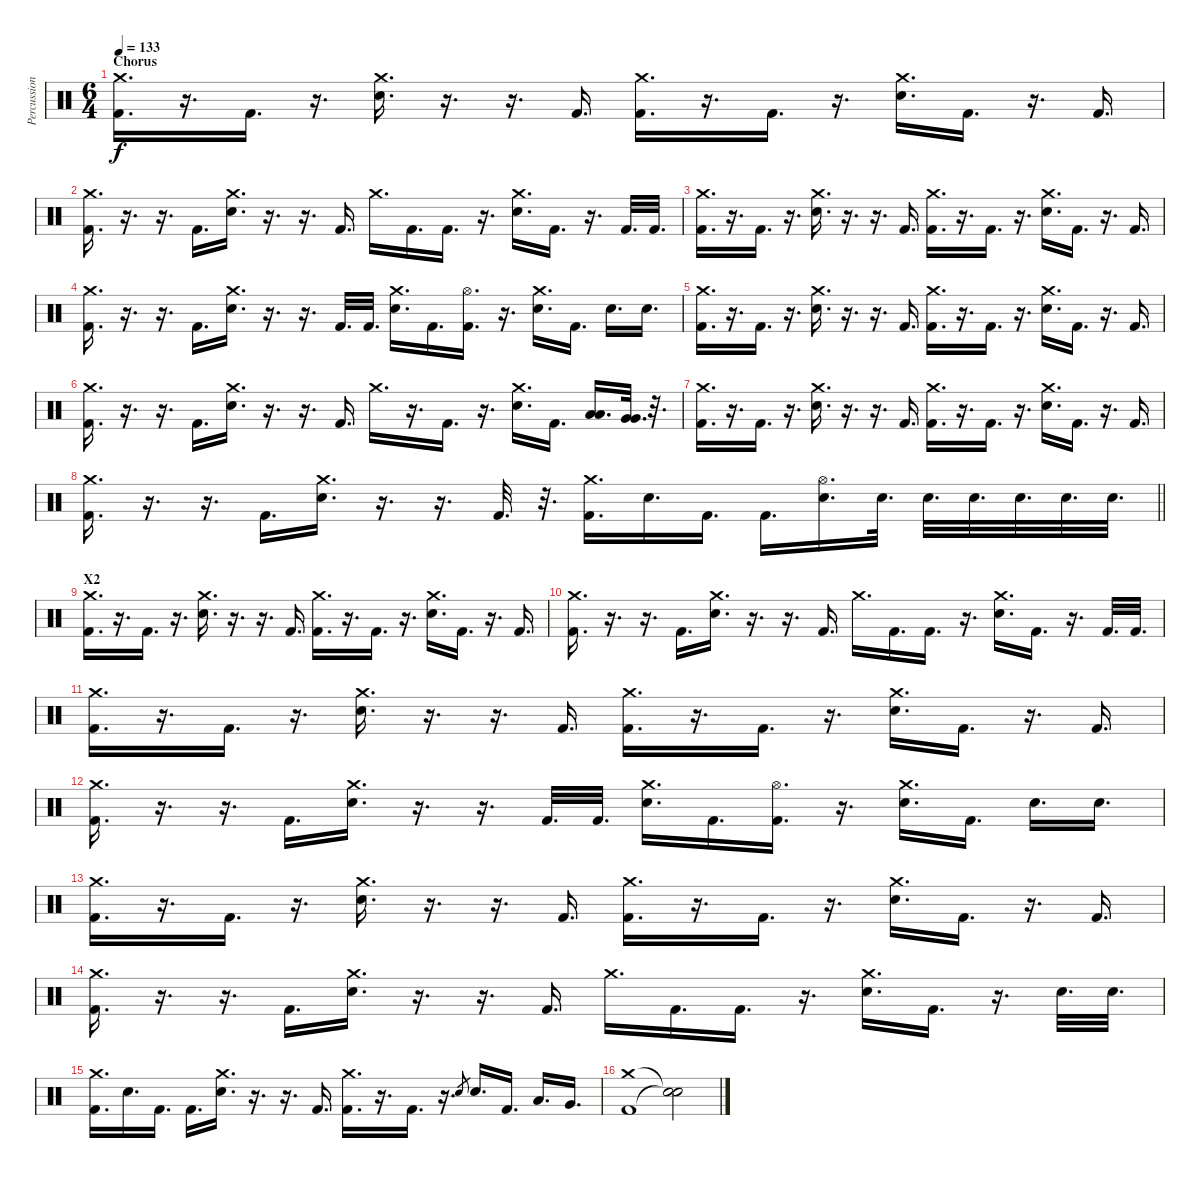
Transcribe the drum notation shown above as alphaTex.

\track ("Percussion" "Percussion") {instrument percussion}
\staff {score}
\articulation defaults
\ts (6 4)
\section ("" "Chorus")
\tempo 133
\clef neutral
\ks c
("Crash medium (hit)" "Kick (hit) 2").16{d dy f} r.16{d} "Kick (hit) 2".16{d} r.16{d} ("Crash medium (hit)" "Electric Snare (hit)").16{d} r.16{d} r.16{d} "Kick (hit) 2".16{d} ("Crash medium (hit)" "Kick (hit) 2").16{d} r.16{d} "Kick (hit) 2".16{d} r.16{d} ("Crash medium (hit)" "Electric Snare (hit)").16{d} "Kick (hit) 2".16{d} r.16{d} "Kick (hit) 2".16{d} |
("Crash medium (hit)" "Kick (hit) 2").16{d} r.16{d} r.16{d} "Kick (hit) 2".16{d} ("Crash medium (hit)" "Electric Snare (hit)").16{d} r.16{d} r.16{d} "Kick (hit) 2".16{d} "Crash medium (hit)".16{d} "Kick (hit) 2".16{d} "Kick (hit) 2".16{d} r.16{d} ("Crash medium (hit)" "Electric Snare (hit)").16{d} "Kick (hit) 2".16{d} r.16{d} "Kick (hit) 2".32{d} "Kick (hit) 2".32{d} |
("Crash medium (hit)" "Kick (hit) 2").16{d} r.16{d} "Kick (hit) 2".16{d} r.16{d} ("Crash medium (hit)" "Electric Snare (hit)").16{d} r.16{d} r.16{d} "Kick (hit) 2".16{d} ("Crash medium (hit)" "Kick (hit) 2").16{d} r.16{d} "Kick (hit) 2".16{d} r.16{d} ("Crash medium (hit)" "Electric Snare (hit)").16{d} "Kick (hit) 2".16{d} r.16{d} "Kick (hit) 2".16{d} |
("Crash medium (hit)" "Kick (hit) 2").16{d} r.16{d} r.16{d} "Kick (hit) 2".16{d} ("Crash medium (hit)" "Electric Snare (hit)").16{d} r.16{d} r.16{d} "Kick (hit) 2".32{d} "Kick (hit) 2".32{d} ("Crash medium (hit)" "Electric Snare (hit)").16{d} "Kick (hit) 2".16{d} ("Hi-Hat (open)" "Kick (hit) 2").16{d} r.16{d} ("Crash medium (hit)" "Electric Snare (hit)").16{d} "Kick (hit) 2".16{d} "Electric Snare (hit)".16{d} "Electric Snare (hit)".16{d} |
("Crash medium (hit)" "Kick (hit) 2").16{d} r.16{d} "Kick (hit) 2".16{d} r.16{d} ("Crash medium (hit)" "Electric Snare (hit)").16{d} r.16{d} r.16{d} "Kick (hit) 2".16{d} ("Crash medium (hit)" "Kick (hit) 2").16{d} r.16{d} "Kick (hit) 2".16{d} r.16{d} ("Crash medium (hit)" "Electric Snare (hit)").16{d} "Kick (hit) 2".16{d} r.16{d} "Kick (hit) 2".16{d} |
("Crash medium (hit)" "Kick (hit) 2").16{d} r.16{d} r.16{d} "Kick (hit) 2".16{d} ("Crash medium (hit)" "Electric Snare (hit)").16{d} r.16{d} r.16{d} "Kick (hit) 2".16{d} "Crash medium (hit)".16{d} r.16{d} "Kick (hit) 2".16{d} r.16{d} ("Crash medium (hit)" "Electric Snare (hit)").16{d} "Kick (hit) 2".16{d} ("Low Tom (hit)" "Low Tom (hit)").16{d} ("Very Low Tom (hit)" "Very Low Tom (hit)").32{d} r.32{d} |
("Crash medium (hit)" "Kick (hit) 2").16{d} r.16{d} "Kick (hit) 2".16{d} r.16{d} ("Crash medium (hit)" "Electric Snare (hit)").16{d} r.16{d} r.16{d} "Kick (hit) 2".16{d} ("Crash medium (hit)" "Kick (hit) 2").16{d} r.16{d} "Kick (hit) 2".16{d} r.16{d} ("Crash medium (hit)" "Electric Snare (hit)").16{d} "Kick (hit) 2".16{d} r.16{d} "Kick (hit) 2".16{d} |
\barLineRight lightlight
("Crash medium (hit)" "Kick (hit) 2").16{d} r.16{d} r.16{d} "Kick (hit) 2".16{d} ("Crash medium (hit)" "Electric Snare (hit)").16{d} r.16{d} r.16{d} "Kick (hit) 2".32{d} r.32{d} ("Crash medium (hit)" "Kick (hit) 2").16{d} "Electric Snare (hit)".16{d} "Kick (hit) 2".16{d} "Kick (hit) 2".16{d} ("Hi-Hat (open)" "Electric Snare (hit)").16{d} "Electric Snare (hit)".32{d} "Electric Snare (hit)".32{d} "Electric Snare (hit)".32{d} "Electric Snare (hit)".32{d} "Electric Snare (hit)".32{d} "Electric Snare (hit)".32{d} |
\section ("" "X2")
("Crash medium (hit)" "Kick (hit) 2").16{d} r.16{d} "Kick (hit) 2".16{d} r.16{d} ("Crash medium (hit)" "Electric Snare (hit)").16{d} r.16{d} r.16{d} "Kick (hit) 2".16{d} ("Crash medium (hit)" "Kick (hit) 2").16{d} r.16{d} "Kick (hit) 2".16{d} r.16{d} ("Crash medium (hit)" "Electric Snare (hit)").16{d} "Kick (hit) 2".16{d} r.16{d} "Kick (hit) 2".16{d} |
("Crash medium (hit)" "Kick (hit) 2").16{d} r.16{d} r.16{d} "Kick (hit) 2".16{d} ("Crash medium (hit)" "Electric Snare (hit)").16{d} r.16{d} r.16{d} "Kick (hit) 2".16{d} "Crash medium (hit)".16{d} "Kick (hit) 2".16{d} "Kick (hit) 2".16{d} r.16{d} ("Crash medium (hit)" "Electric Snare (hit)").16{d} "Kick (hit) 2".16{d} r.16{d} "Kick (hit) 2".32{d} "Kick (hit) 2".32{d} |
("Crash medium (hit)" "Kick (hit) 2").16{d} r.16{d} "Kick (hit) 2".16{d} r.16{d} ("Crash medium (hit)" "Electric Snare (hit)").16{d} r.16{d} r.16{d} "Kick (hit) 2".16{d} ("Crash medium (hit)" "Kick (hit) 2").16{d} r.16{d} "Kick (hit) 2".16{d} r.16{d} ("Crash medium (hit)" "Electric Snare (hit)").16{d} "Kick (hit) 2".16{d} r.16{d} "Kick (hit) 2".16{d} |
("Crash medium (hit)" "Kick (hit) 2").16{d} r.16{d} r.16{d} "Kick (hit) 2".16{d} ("Crash medium (hit)" "Electric Snare (hit)").16{d} r.16{d} r.16{d} "Kick (hit) 2".32{d} "Kick (hit) 2".32{d} ("Crash medium (hit)" "Electric Snare (hit)").16{d} "Kick (hit) 2".16{d} ("Hi-Hat (open)" "Kick (hit) 2").16{d} r.16{d} ("Crash medium (hit)" "Electric Snare (hit)").16{d} "Kick (hit) 2".16{d} "Electric Snare (hit)".16{d} "Electric Snare (hit)".16{d} |
("Crash medium (hit)" "Kick (hit) 2").16{d} r.16{d} "Kick (hit) 2".16{d} r.16{d} ("Crash medium (hit)" "Electric Snare (hit)").16{d} r.16{d} r.16{d} "Kick (hit) 2".16{d} ("Crash medium (hit)" "Kick (hit) 2").16{d} r.16{d} "Kick (hit) 2".16{d} r.16{d} ("Crash medium (hit)" "Electric Snare (hit)").16{d} "Kick (hit) 2".16{d} r.16{d} "Kick (hit) 2".16{d} |
("Crash medium (hit)" "Kick (hit) 2").16{d} r.16{d} r.16{d} "Kick (hit) 2".16{d} ("Crash medium (hit)" "Electric Snare (hit)").16{d} r.16{d} r.16{d} "Kick (hit) 2".16{d} "Crash medium (hit)".16{d} "Kick (hit) 2".16{d} "Kick (hit) 2".16{d} r.16{d} ("Crash medium (hit)" "Electric Snare (hit)").16{d} "Kick (hit) 2".16{d} r.16{d} "Electric Snare (hit)".32{d} "Electric Snare (hit)".32{d} |
("Crash medium (hit)" "Kick (hit) 2").16{d} "Electric Snare (hit)".16{d} "Kick (hit) 2".16{d} "Kick (hit) 2".16{d} ("Crash medium (hit)" "Electric Snare (hit)").16{d} r.16{d} r.16{d} "Kick (hit) 2".16{d} ("Crash medium (hit)" "Kick (hit) 2").16{d} r.16{d} "Kick (hit) 2".16{d} r.16{d} "Electric Snare (hit)".8{gr} "Electric Snare (hit)".16{d} "Kick (hit) 2".16{d} "Low Tom (hit)".16{d} "Very Low Tom (hit)".16{d} |
("Crash medium (hit)" "Kick (hit) 2").1 ("Snare (hit)"{t} "Snare (hit)"{t}).2
